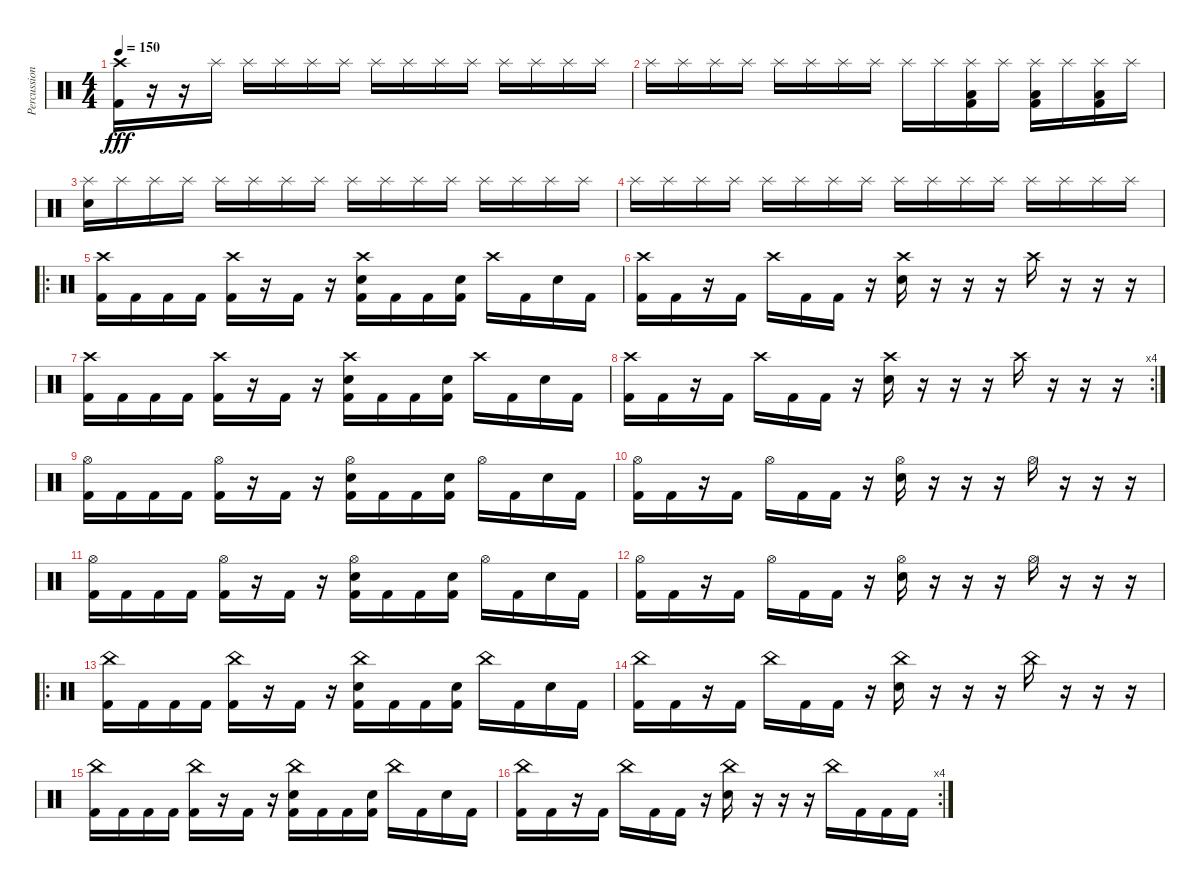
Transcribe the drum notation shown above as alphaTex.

\track ("Percussion" "Percussion") {instrument percussion}
\staff {score}
\articulation defaults
\ts (4 4)
\tempo 150
\clef neutral
\ks c
("Crash high (hit)" "Kick (hit) 2").16{dy fff} r.16 r.16 "Splash (hit)".16{volume 0} "Splash (hit)".16{volume 16} "Splash (hit)".16 "Splash (hit)".16 "Splash (hit)".16 "Splash (hit)".16 "Splash (hit)".16 "Splash (hit)".16 "Splash (hit)".16 "Splash (hit)".16 "Splash (hit)".16 "Splash (hit)".16 "Splash (hit)".16 |
"Splash (hit)".16 "Splash (hit)".16 "Splash (hit)".16 "Splash (hit)".16 "Splash (hit)".16 "Splash (hit)".16 "Splash (hit)".16 "Splash (hit)".16 "Splash (hit)".16 "Splash (hit)".16 ("Splash (hit)" "Low Floor Tom (hit)" "Kick (hit) 2").16 "Splash (hit)".16 ("Splash (hit)" "Low Floor Tom (hit)" "Kick (hit) 2").16 "Splash (hit)".16 ("Splash (hit)" "Low Floor Tom (hit)" "Kick (hit) 2").16 "Splash (hit)".16 |
("Splash (hit)" "Electric Snare (hit)").16 "Splash (hit)".16 "Splash (hit)".16 "Splash (hit)".16 "Splash (hit)".16 "Splash (hit)".16 "Splash (hit)".16 "Splash (hit)".16 "Splash (hit)".16 "Splash (hit)".16 "Splash (hit)".16 "Splash (hit)".16 "Splash (hit)".16 "Splash (hit)".16 "Splash (hit)".16 "Splash (hit)".16 |
"Splash (hit)".16 "Splash (hit)".16 "Splash (hit)".16 "Splash (hit)".16 "Splash (hit)".16 "Splash (hit)".16 "Splash (hit)".16 "Splash (hit)".16 "Splash (hit)".16 "Splash (hit)".16 "Splash (hit)".16 "Splash (hit)".16 "Splash (hit)".16 "Splash (hit)".16 "Splash (hit)".16 "Splash (hit)".16 |
\ro
("Crash high (hit)" "Kick (hit) 2").16 "Kick (hit) 2".16 "Kick (hit) 2".16 "Kick (hit) 2".16 ("Crash high (hit)" "Kick (hit) 2").16 r.16 "Kick (hit) 2".16 r.16 ("Crash high (hit)" "Electric Snare (hit)" "Kick (hit) 2").16 "Kick (hit) 2".16 "Kick (hit) 2".16 ("Electric Snare (hit)" "Kick (hit) 2").16 "Crash high (hit)".16 "Kick (hit) 2".16 "Electric Snare (hit)".16 "Kick (hit) 2".16 |
("Crash high (hit)" "Kick (hit) 2").16 "Kick (hit) 2".16 r.16 "Kick (hit) 2".16 "Crash high (hit)".16 "Kick (hit) 2".16 "Kick (hit) 2".16 r.16 ("Crash high (hit)" "Electric Snare (hit)").16 r.16 r.16 r.16 "Crash high (hit)".16 r.16 r.16 r.16 |
("Crash high (hit)" "Kick (hit) 2").16 "Kick (hit) 2".16 "Kick (hit) 2".16 "Kick (hit) 2".16 ("Crash high (hit)" "Kick (hit) 2").16 r.16 "Kick (hit) 2".16 r.16 ("Crash high (hit)" "Electric Snare (hit)" "Kick (hit) 2").16 "Kick (hit) 2".16 "Kick (hit) 2".16 ("Electric Snare (hit)" "Kick (hit) 2").16 "Crash high (hit)".16 "Kick (hit) 2".16 "Electric Snare (hit)".16 "Kick (hit) 2".16 |
\rc 4
("Crash high (hit)" "Kick (hit) 2").16 "Kick (hit) 2".16 r.16 "Kick (hit) 2".16 "Crash high (hit)".16 "Kick (hit) 2".16 "Kick (hit) 2".16 r.16 ("Crash high (hit)" "Electric Snare (hit)").16 r.16 r.16 r.16 "Crash high (hit)".16 r.16 r.16 r.16 |
("Hi-Hat (open)" "Kick (hit) 2").16 "Kick (hit) 2".16 "Kick (hit) 2".16 "Kick (hit) 2".16 ("Hi-Hat (open)" "Kick (hit) 2").16 r.16 "Kick (hit) 2".16 r.16 ("Hi-Hat (open)" "Electric Snare (hit)" "Kick (hit) 2").16 "Kick (hit) 2".16 "Kick (hit) 2".16 ("Electric Snare (hit)" "Kick (hit) 2").16 "Hi-Hat (open)".16 "Kick (hit) 2".16 "Electric Snare (hit)".16 "Kick (hit) 2".16 |
("Hi-Hat (open)" "Kick (hit) 2").16 "Kick (hit) 2".16 r.16 "Kick (hit) 2".16 "Hi-Hat (open)".16 "Kick (hit) 2".16 "Kick (hit) 2".16 r.16 ("Hi-Hat (open)" "Electric Snare (hit)").16 r.16 r.16 r.16 "Hi-Hat (open)".16 r.16 r.16 r.16 |
("Hi-Hat (open)" "Kick (hit) 2").16 "Kick (hit) 2".16 "Kick (hit) 2".16 "Kick (hit) 2".16 ("Hi-Hat (open)" "Kick (hit) 2").16 r.16 "Kick (hit) 2".16 r.16 ("Hi-Hat (open)" "Electric Snare (hit)" "Kick (hit) 2").16 "Kick (hit) 2".16 "Kick (hit) 2".16 ("Electric Snare (hit)" "Kick (hit) 2").16 "Hi-Hat (open)".16 "Kick (hit) 2".16 "Electric Snare (hit)".16 "Kick (hit) 2".16 |
("Hi-Hat (open)" "Kick (hit) 2").16 "Kick (hit) 2".16 r.16 "Kick (hit) 2".16 "Hi-Hat (open)".16 "Kick (hit) 2".16 "Kick (hit) 2".16 r.16 ("Hi-Hat (open)" "Electric Snare (hit)").16 r.16 r.16 r.16 "Hi-Hat (open)".16 r.16 r.16 r.16 |
\ro
("China (hit)" "Kick (hit) 2").16 "Kick (hit) 2".16 "Kick (hit) 2".16 "Kick (hit) 2".16 ("China (hit)" "Kick (hit) 2").16 r.16 "Kick (hit) 2".16 r.16 ("China (hit)" "Electric Snare (hit)" "Kick (hit) 2").16 "Kick (hit) 2".16 "Kick (hit) 2".16 ("Electric Snare (hit)" "Kick (hit) 2").16 "China (hit)".16 "Kick (hit) 2".16 "Electric Snare (hit)".16 "Kick (hit) 2".16 |
("China (hit)" "Kick (hit) 2").16 "Kick (hit) 2".16 r.16 "Kick (hit) 2".16 "China (hit)".16 "Kick (hit) 2".16 "Kick (hit) 2".16 r.16 ("China (hit)" "Electric Snare (hit)").16 r.16 r.16 r.16 "China (hit)".16 r.16 r.16 r.16 |
("China (hit)" "Kick (hit) 2").16 "Kick (hit) 2".16 "Kick (hit) 2".16 "Kick (hit) 2".16 ("China (hit)" "Kick (hit) 2").16 r.16 "Kick (hit) 2".16 r.16 ("China (hit)" "Electric Snare (hit)" "Kick (hit) 2").16 "Kick (hit) 2".16 "Kick (hit) 2".16 ("Electric Snare (hit)" "Kick (hit) 2").16 "China (hit)".16 "Kick (hit) 2".16 "Electric Snare (hit)".16 "Kick (hit) 2".16 |
\rc 4
("China (hit)" "Kick (hit) 2").16 "Kick (hit) 2".16 r.16 "Kick (hit) 2".16 "China (hit)".16 "Kick (hit) 2".16 "Kick (hit) 2".16 r.16 ("China (hit)" "Electric Snare (hit)").16 r.16 r.16 r.16 "China (hit)".16 "Kick (hit) 2".16 "Kick (hit) 2".16 "Kick (hit) 2".16
